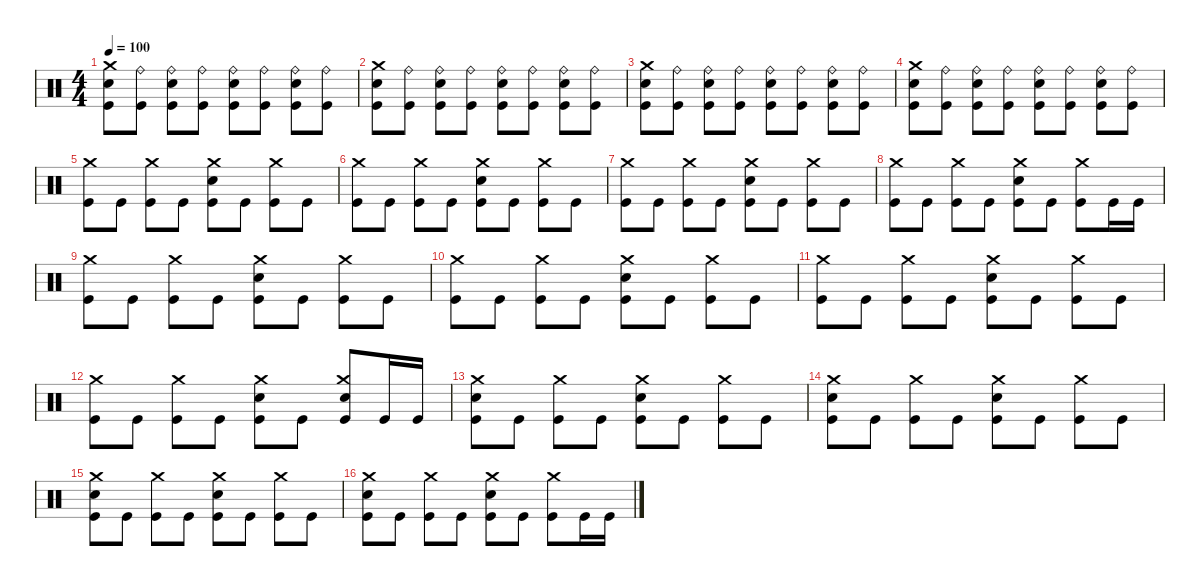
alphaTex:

\defaultSystemsLayout 4
\hideDynamics
\bracketExtendMode nobrackets
\singleTrackTrackNamePolicy hidden
\multiTrackTrackNamePolicy hidden
\firstSystemTrackNameMode fullname
\otherSystemsTrackNameOrientation horizontal
\track ("Drumkit" "drm.") {instrument percussion}
\staff {score}
\articulation defaults
\ts (4 4)
\tempo 100
\clef neutral
\ks c
("Snare (hit) 2" "Kick (hit)" "Crash medium (hit)").8{dy mf beam Down} ("Kick (hit)" "Ride (bell)").8{beam Down} ("Snare (hit) 2" "Kick (hit)" "Ride (bell)").8{beam Down} ("Kick (hit)" "Ride (bell)").8{beam Down} ("Kick (hit)" "Snare (hit) 2" "Ride (bell)").8{beam Down} ("Kick (hit)" "Ride (bell)").8{beam Down} ("Kick (hit)" "Snare (hit) 2" "Ride (bell)").8{beam Down} ("Kick (hit)" "Ride (bell)").8{beam Down} |
("Snare (hit) 2" "Kick (hit)" "Crash medium (hit)").8{beam Down} ("Kick (hit)" "Ride (bell)").8{beam Down} ("Snare (hit) 2" "Kick (hit)" "Ride (bell)").8{beam Down} ("Kick (hit)" "Ride (bell)").8{beam Down} ("Kick (hit)" "Snare (hit) 2" "Ride (bell)").8{beam Down} ("Kick (hit)" "Ride (bell)").8{beam Down} ("Kick (hit)" "Snare (hit) 2" "Ride (bell)").8{beam Down} ("Kick (hit)" "Ride (bell)").8{beam Down} |
("Snare (hit) 2" "Kick (hit)" "Crash medium (hit)").8{beam Down} ("Kick (hit)" "Ride (bell)").8{beam Down} ("Snare (hit) 2" "Kick (hit)" "Ride (bell)").8{beam Down} ("Kick (hit)" "Ride (bell)").8{beam Down} ("Kick (hit)" "Snare (hit) 2" "Ride (bell)").8{beam Down} ("Kick (hit)" "Ride (bell)").8{beam Down} ("Kick (hit)" "Snare (hit) 2" "Ride (bell)").8{beam Down} ("Kick (hit)" "Ride (bell)").8{beam Down} |
("Snare (hit) 2" "Kick (hit)" "Crash medium (hit)").8{beam Down} ("Kick (hit)" "Ride (bell)").8{beam Down} ("Snare (hit) 2" "Kick (hit)" "Ride (bell)").8{beam Down} ("Kick (hit)" "Ride (bell)").8{beam Down} ("Kick (hit)" "Snare (hit) 2" "Ride (bell)").8{beam Down} ("Kick (hit)" "Ride (bell)").8{beam Down} ("Kick (hit)" "Snare (hit) 2" "Ride (bell)").8{beam Down} ("Kick (hit)" "Ride (bell)").8{beam Down} |
("Kick (hit)" "Crash medium (hit)").8{beam Down} "Kick (hit)".8{beam Down} ("Kick (hit)" "Crash medium (hit)").8{beam Down} "Kick (hit)".8{beam Down} ("Kick (hit)" "Snare (hit) 2" "Crash medium (hit)").8{beam Down} "Kick (hit)".8{beam Down} ("Kick (hit)" "Crash medium (hit)").8{beam Down} "Kick (hit)".8{beam Down} |
("Kick (hit)" "Crash medium (hit)").8{beam Down} "Kick (hit)".8{beam Down} ("Kick (hit)" "Crash medium (hit)").8{beam Down} "Kick (hit)".8{beam Down} ("Kick (hit)" "Snare (hit) 2" "Crash medium (hit)").8{beam Down} "Kick (hit)".8{beam Down} ("Kick (hit)" "Crash medium (hit)").8{beam Down} "Kick (hit)".8{beam Down} |
("Kick (hit)" "Crash medium (hit)").8{beam Down} "Kick (hit)".8{beam Down} ("Kick (hit)" "Crash medium (hit)").8{beam Down} "Kick (hit)".8{beam Down} ("Kick (hit)" "Snare (hit) 2" "Crash medium (hit)").8{beam Down} "Kick (hit)".8{beam Down} ("Kick (hit)" "Crash medium (hit)").8{beam Down} "Kick (hit)".8{beam Down} |
("Kick (hit)" "Crash medium (hit)").8{beam Down} "Kick (hit)".8{beam Down} ("Kick (hit)" "Crash medium (hit)").8{beam Down} "Kick (hit)".8{beam Down} ("Kick (hit)" "Snare (hit) 2" "Crash medium (hit)").8{beam Down} "Kick (hit)".8{beam Down} ("Kick (hit)" "Crash medium (hit)").8{beam Down} "Kick (hit)".16{beam Down} "Kick (hit)".16{beam Down} |
("Kick (hit)" "Crash medium (hit)").8{beam Down} "Kick (hit)".8{beam Down} ("Kick (hit)" "Crash medium (hit)").8{beam Down} "Kick (hit)".8{beam Down} ("Kick (hit)" "Snare (hit) 2" "Crash medium (hit)").8{beam Down} "Kick (hit)".8{beam Down} ("Kick (hit)" "Crash medium (hit)").8{beam Down} "Kick (hit)".8{beam Down} |
("Kick (hit)" "Crash medium (hit)").8{beam Down} "Kick (hit)".8{beam Down} ("Kick (hit)" "Crash medium (hit)").8{beam Down} "Kick (hit)".8{beam Down} ("Kick (hit)" "Snare (hit) 2" "Crash medium (hit)").8{beam Down} "Kick (hit)".8{beam Down} ("Kick (hit)" "Crash medium (hit)").8{beam Down} "Kick (hit)".8{beam Down} |
("Kick (hit)" "Crash medium (hit)").8{beam Down} "Kick (hit)".8{beam Down} ("Kick (hit)" "Crash medium (hit)").8{beam Down} "Kick (hit)".8{beam Down} ("Kick (hit)" "Snare (hit) 2" "Crash medium (hit)").8{beam Down} "Kick (hit)".8{beam Down} ("Kick (hit)" "Crash medium (hit)").8{beam Down} "Kick (hit)".8{beam Down} |
("Kick (hit)" "Crash medium (hit)").8{beam Down} "Kick (hit)".8{beam Down} ("Kick (hit)" "Crash medium (hit)").8{beam Down} "Kick (hit)".8{beam Down} ("Kick (hit)" "Snare (hit) 2" "Crash medium (hit)").8{beam Down} "Kick (hit)".8{beam Down} ("Kick (hit)" "Crash medium (hit)" "Snare (hit) 2").8{beam Up} "Kick (hit)".16{beam Up} "Kick (hit)".16{beam Up} |
("Kick (hit)" "Crash medium (hit)" "Snare (hit) 2").8{beam Down} "Kick (hit)".8{beam Down} ("Kick (hit)" "Crash medium (hit)").8{beam Down} "Kick (hit)".8{beam Down} ("Kick (hit)" "Snare (hit) 2" "Crash medium (hit)").8{beam Down} "Kick (hit)".8{beam Down} ("Kick (hit)" "Crash medium (hit)").8{beam Down} "Kick (hit)".8{beam Down} |
("Kick (hit)" "Crash medium (hit)" "Snare (hit) 2").8{beam Down} "Kick (hit)".8{beam Down} ("Kick (hit)" "Crash medium (hit)").8{beam Down} "Kick (hit)".8{beam Down} ("Kick (hit)" "Snare (hit) 2" "Crash medium (hit)").8{beam Down} "Kick (hit)".8{beam Down} ("Kick (hit)" "Crash medium (hit)").8{beam Down} "Kick (hit)".8{beam Down} |
("Kick (hit)" "Crash medium (hit)" "Snare (hit) 2").8{beam Down} "Kick (hit)".8{beam Down} ("Kick (hit)" "Crash medium (hit)").8{beam Down} "Kick (hit)".8{beam Down} ("Kick (hit)" "Snare (hit) 2" "Crash medium (hit)").8{beam Down} "Kick (hit)".8{beam Down} ("Kick (hit)" "Crash medium (hit)").8{beam Down} "Kick (hit)".8{beam Down} |
("Kick (hit)" "Crash medium (hit)" "Snare (hit) 2").8{beam Down} "Kick (hit)".8{beam Down} ("Kick (hit)" "Crash medium (hit)").8{beam Down} "Kick (hit)".8{beam Down} ("Kick (hit)" "Snare (hit) 2" "Crash medium (hit)").8{beam Down} "Kick (hit)".8{beam Down} ("Kick (hit)" "Crash medium (hit)").8{beam Down} "Kick (hit)".16{beam Down} "Kick (hit)".16{beam Down}
